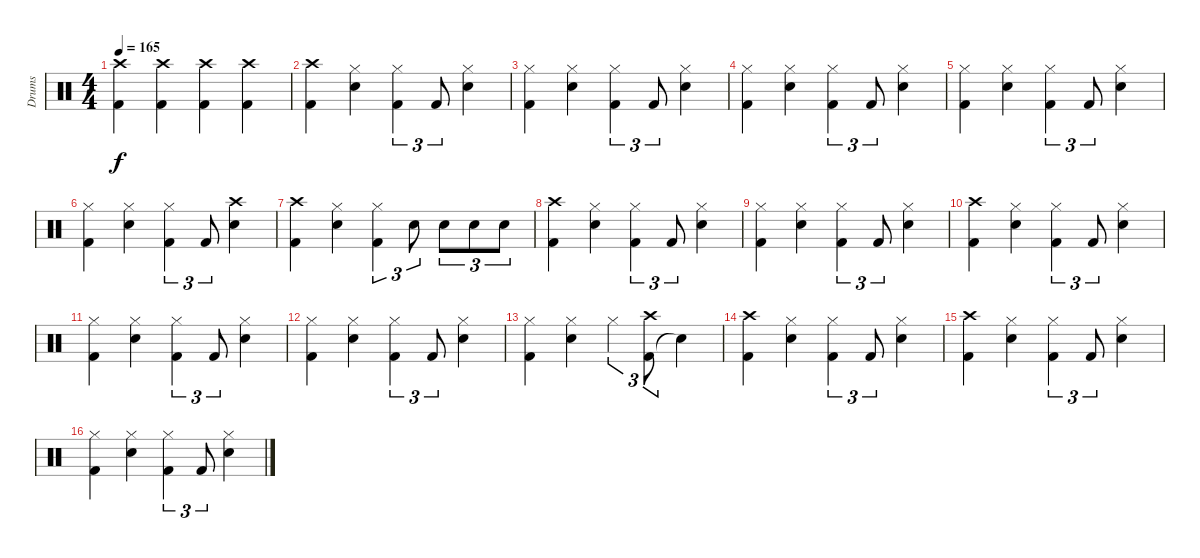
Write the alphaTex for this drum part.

\track ("Drums" "Drums") {instrument percussion}
\staff {score}
\articulation defaults
\ts (4 4)
\tempo 165
\clef neutral
\ks c
("Kick (hit) 2" "Crash high (hit)").4{dy f} ("Kick (hit) 2" "Crash high (hit)").4 ("Kick (hit) 2" "Crash high (hit)").4 ("Kick (hit) 2" "Crash high (hit)").4 |
("Crash high (hit)" "Kick (hit) 2").4 ("Hi-Hat (closed)" "Electric Snare (hit)").4 ("Hi-Hat (closed)" "Kick (hit) 2").4{tu (3 2)} "Kick (hit) 2".8{tu (3 2)} ("Hi-Hat (closed)" "Electric Snare (hit)").4 |
("Hi-Hat (closed)" "Kick (hit) 2").4 ("Hi-Hat (closed)" "Electric Snare (hit)").4 ("Hi-Hat (closed)" "Kick (hit) 2").4{tu (3 2)} "Kick (hit) 2".8{tu (3 2)} ("Hi-Hat (closed)" "Electric Snare (hit)").4 |
("Hi-Hat (closed)" "Kick (hit) 2").4 ("Hi-Hat (closed)" "Electric Snare (hit)").4 ("Hi-Hat (closed)" "Kick (hit) 2").4{tu (3 2)} "Kick (hit) 2".8{tu (3 2)} ("Hi-Hat (closed)" "Electric Snare (hit)").4 |
("Hi-Hat (closed)" "Kick (hit) 2").4 ("Hi-Hat (closed)" "Electric Snare (hit)").4 ("Hi-Hat (closed)" "Kick (hit) 2").4{tu (3 2)} "Kick (hit) 2".8{tu (3 2)} ("Hi-Hat (closed)" "Electric Snare (hit)").4 |
("Hi-Hat (closed)" "Kick (hit) 2").4 ("Hi-Hat (closed)" "Electric Snare (hit)").4 ("Hi-Hat (closed)" "Kick (hit) 2").4{tu (3 2)} "Kick (hit) 2".8{tu (3 2)} ("Crash high (hit)" "Electric Snare (hit)").4 |
("Crash high (hit)" "Kick (hit) 2").4 ("Hi-Hat (closed)" "Electric Snare (hit)").4 ("Hi-Hat (closed)" "Kick (hit) 2").4{tu (3 2)} "Electric Snare (hit)".8{tu (3 2)} "Electric Snare (hit)".8{tu (3 2)} "Electric Snare (hit)".8{tu (3 2)} "Electric Snare (hit)".8{tu (3 2)} |
("Crash high (hit)" "Kick (hit) 2").4 ("Hi-Hat (closed)" "Electric Snare (hit)").4 ("Hi-Hat (closed)" "Kick (hit) 2").4{tu (3 2)} "Kick (hit) 2".8{tu (3 2)} ("Hi-Hat (closed)" "Electric Snare (hit)").4 |
("Hi-Hat (closed)" "Kick (hit) 2").4 ("Hi-Hat (closed)" "Electric Snare (hit)").4 ("Hi-Hat (closed)" "Kick (hit) 2").4{tu (3 2)} "Kick (hit) 2".8{tu (3 2)} ("Hi-Hat (closed)" "Electric Snare (hit)").4 |
("Crash high (hit)" "Kick (hit) 2").4 ("Hi-Hat (closed)" "Electric Snare (hit)").4 ("Hi-Hat (closed)" "Kick (hit) 2").4{tu (3 2)} "Kick (hit) 2".8{tu (3 2)} ("Hi-Hat (closed)" "Electric Snare (hit)").4 |
("Hi-Hat (closed)" "Kick (hit) 2").4 ("Hi-Hat (closed)" "Electric Snare (hit)").4 ("Hi-Hat (closed)" "Kick (hit) 2").4{tu (3 2)} "Kick (hit) 2".8{tu (3 2)} ("Hi-Hat (closed)" "Electric Snare (hit)").4 |
("Hi-Hat (closed)" "Kick (hit) 2").4 ("Hi-Hat (closed)" "Electric Snare (hit)").4 ("Hi-Hat (closed)" "Kick (hit) 2").4{tu (3 2)} "Kick (hit) 2".8{tu (3 2)} ("Hi-Hat (closed)" "Electric Snare (hit)").4 |
("Hi-Hat (closed)" "Kick (hit) 2").4 ("Hi-Hat (closed)" "Electric Snare (hit)").4 "Hi-Hat (closed)".4{tu (3 2)} ("Kick (hit) 2" "Crash high (hit)").8{tu (3 2)} "Snare (hit)"{t}.4 |
("Crash high (hit)" "Kick (hit) 2").4 ("Hi-Hat (closed)" "Electric Snare (hit)").4 ("Hi-Hat (closed)" "Kick (hit) 2").4{tu (3 2)} "Kick (hit) 2".8{tu (3 2)} ("Hi-Hat (closed)" "Electric Snare (hit)").4 |
("Crash high (hit)" "Kick (hit) 2").4 ("Hi-Hat (closed)" "Electric Snare (hit)").4 ("Hi-Hat (closed)" "Kick (hit) 2").4{tu (3 2)} "Kick (hit) 2".8{tu (3 2)} ("Hi-Hat (closed)" "Electric Snare (hit)").4 |
("Hi-Hat (closed)" "Kick (hit) 2").4 ("Hi-Hat (closed)" "Electric Snare (hit)").4 ("Hi-Hat (closed)" "Kick (hit) 2").4{tu (3 2)} "Kick (hit) 2".8{tu (3 2)} ("Hi-Hat (closed)" "Electric Snare (hit)").4
